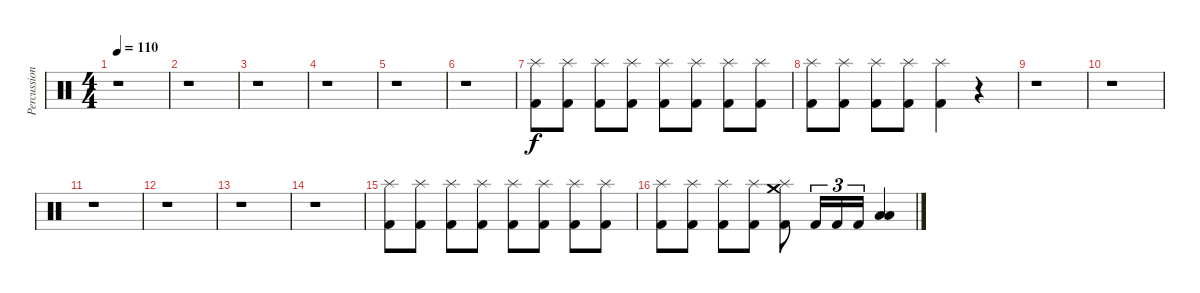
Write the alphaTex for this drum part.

\track ("Percussion" "Percussion") {instrument percussion}
\staff {score}
\articulation defaults
\ts (4 4)
\tempo 110
\clef neutral
\ks c
r.1{dy f} |
r.1 |
r.1 |
r.1 |
r.1 |
r.1 |
("Kick (hit) 2" "Splash (hit)").8 ("Kick (hit) 2" "Splash (hit)").8 ("Kick (hit) 2" "Splash (hit)").8 ("Kick (hit) 2" "Splash (hit)").8 ("Kick (hit) 2" "Splash (hit)").8 ("Kick (hit) 2" "Splash (hit)").8 ("Kick (hit) 2" "Splash (hit)").8 ("Kick (hit) 2" "Splash (hit)").8 |
("Kick (hit) 2" "Splash (hit)").8 ("Kick (hit) 2" "Splash (hit)").8 ("Kick (hit) 2" "Splash (hit)").8 ("Kick (hit) 2" "Splash (hit)").8 ("Kick (hit) 2" "Splash (hit)").4 r.4 |
r.1 |
r.1 |
r.1 |
r.1 |
r.1 |
r.1 |
("Kick (hit) 2" "Splash (hit)").8 ("Kick (hit) 2" "Splash (hit)").8 ("Kick (hit) 2" "Splash (hit)").8 ("Kick (hit) 2" "Splash (hit)").8 ("Kick (hit) 2" "Splash (hit)").8 ("Kick (hit) 2" "Splash (hit)").8 ("Kick (hit) 2" "Splash (hit)").8 ("Kick (hit) 2" "Splash (hit)").8 |
("Kick (hit) 2" "Splash (hit)").8 ("Kick (hit) 2" "Splash (hit)").8 ("Kick (hit) 2" "Splash (hit)").8 ("Kick (hit) 2" "Splash (hit)").8 ("Kick (hit) 2" "Splash (hit)" "Crash medium (hit)").8 "Kick (hit) 2".16{tu (3 2)} "Kick (hit) 2".16{tu (3 2)} "Kick (hit) 2".16{tu (3 2)} ("Low Tom (hit)" "Low Tom (hit)").4
